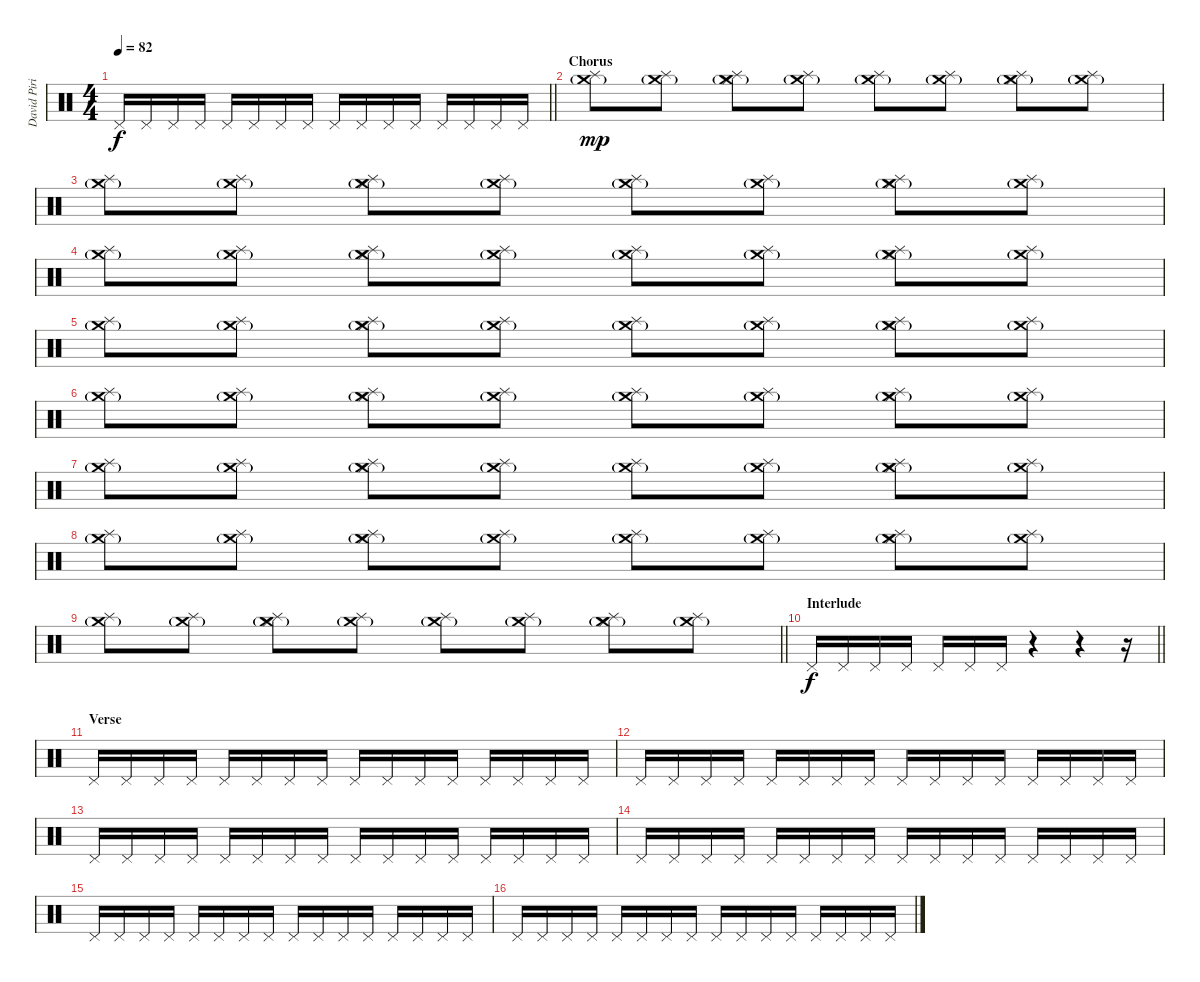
\track ("David Piribauer (Drums)" "David Piri") {instrument percussion}
\staff {score}
\articulation defaults
\ts (4 4)
\tempo 82
\clef neutral
\barLineRight lightlight
\ks c "Pedal Hi-Hat (hit)".16{dy f} "Pedal Hi-Hat (hit)".16 "Pedal Hi-Hat (hit)".16 "Pedal Hi-Hat (hit)".16 "Pedal Hi-Hat (hit)".16 "Pedal Hi-Hat (hit)".16 "Pedal Hi-Hat (hit)".16 "Pedal Hi-Hat (hit)".16 "Pedal Hi-Hat (hit)".16 "Pedal Hi-Hat (hit)".16 "Pedal Hi-Hat (hit)".16 "Pedal Hi-Hat (hit)".16 "Pedal Hi-Hat (hit)".16 "Pedal Hi-Hat (hit)".16 "Pedal Hi-Hat (hit)".16 "Pedal Hi-Hat (hit)".16
|
\section ("" "Chorus")
("Crash medium (hit)"{g} "Splash (hit)").8{dy mp} ("Crash medium (hit)"{g} "Splash (hit)").8 ("Crash medium (hit)"{g} "Splash (hit)" "Hi-Hat (closed)").8 ("Crash medium (hit)"{g} "Splash (hit)").8 ("Crash medium (hit)"{g} "Splash (hit)").8 ("Crash medium (hit)"{g} "Splash (hit)").8 ("Crash medium (hit)"{g} "Splash (hit)" "Hi-Hat (closed)").8 ("Crash medium (hit)"{g} "Splash (hit)").8 |
("Crash medium (hit)"{g} "Splash (hit)").8 ("Crash medium (hit)"{g} "Splash (hit)").8 ("Crash medium (hit)"{g} "Splash (hit)" "Hi-Hat (closed)").8 ("Crash medium (hit)"{g} "Splash (hit)").8 ("Crash medium (hit)"{g} "Splash (hit)").8 ("Crash medium (hit)"{g} "Splash (hit)").8 ("Crash medium (hit)"{g} "Splash (hit)" "Hi-Hat (closed)").8 ("Crash medium (hit)"{g} "Splash (hit)").8 |
("Crash medium (hit)"{g} "Splash (hit)").8 ("Crash medium (hit)"{g} "Splash (hit)").8 ("Crash medium (hit)"{g} "Splash (hit)" "Hi-Hat (closed)").8 ("Crash medium (hit)"{g} "Splash (hit)").8 ("Crash medium (hit)"{g} "Splash (hit)").8 ("Crash medium (hit)"{g} "Splash (hit)").8 ("Crash medium (hit)"{g} "Splash (hit)" "Hi-Hat (closed)").8 ("Crash medium (hit)"{g} "Splash (hit)").8 |
("Crash medium (hit)"{g} "Splash (hit)").8 ("Crash medium (hit)"{g} "Splash (hit)").8 ("Crash medium (hit)"{g} "Splash (hit)" "Hi-Hat (closed)").8 ("Crash medium (hit)"{g} "Splash (hit)").8 ("Crash medium (hit)"{g} "Splash (hit)").8 ("Crash medium (hit)"{g} "Splash (hit)").8 ("Crash medium (hit)"{g} "Splash (hit)" "Hi-Hat (closed)").8 ("Crash medium (hit)"{g} "Splash (hit)").8 |
("Crash medium (hit)"{g} "Splash (hit)").8 ("Crash medium (hit)"{g} "Splash (hit)").8 ("Crash medium (hit)"{g} "Splash (hit)" "Hi-Hat (closed)").8 ("Crash medium (hit)"{g} "Splash (hit)").8 ("Crash medium (hit)"{g} "Splash (hit)").8 ("Crash medium (hit)"{g} "Splash (hit)").8 ("Crash medium (hit)"{g} "Splash (hit)" "Hi-Hat (closed)").8 ("Crash medium (hit)"{g} "Splash (hit)").8 |
("Crash medium (hit)"{g} "Splash (hit)").8 ("Crash medium (hit)"{g} "Splash (hit)").8 ("Crash medium (hit)"{g} "Splash (hit)" "Hi-Hat (closed)").8 ("Crash medium (hit)"{g} "Splash (hit)").8 ("Crash medium (hit)"{g} "Splash (hit)").8 ("Crash medium (hit)"{g} "Splash (hit)").8 ("Crash medium (hit)"{g} "Splash (hit)" "Hi-Hat (closed)").8 ("Crash medium (hit)"{g} "Splash (hit)").8 |
("Crash medium (hit)"{g} "Splash (hit)").8 ("Crash medium (hit)"{g} "Splash (hit)").8 ("Crash medium (hit)"{g} "Splash (hit)" "Hi-Hat (closed)").8 ("Crash medium (hit)"{g} "Splash (hit)").8 ("Crash medium (hit)"{g} "Splash (hit)").8 ("Crash medium (hit)"{g} "Splash (hit)").8 ("Crash medium (hit)"{g} "Splash (hit)" "Hi-Hat (closed)").8 ("Crash medium (hit)"{g} "Splash (hit)").8 |
\barLineRight lightlight
("Crash medium (hit)"{g} "Splash (hit)").8 ("Crash medium (hit)"{g} "Splash (hit)").8 ("Crash medium (hit)"{g} "Splash (hit)" "Hi-Hat (closed)").8 ("Crash medium (hit)"{g} "Splash (hit)").8 ("Crash medium (hit)"{g} "Splash (hit)").8 ("Crash medium (hit)"{g} "Splash (hit)").8 ("Crash medium (hit)"{g} "Splash (hit)" "Hi-Hat (closed)").8 ("Crash medium (hit)"{g} "Splash (hit)").8 |
\section ("" "Interlude")
\barLineRight lightlight "Pedal Hi-Hat (hit)".16{dy f} "Pedal Hi-Hat (hit)".16 "Pedal Hi-Hat (hit)".16 "Pedal Hi-Hat (hit)".16 "Pedal Hi-Hat (hit)".16 "Pedal Hi-Hat (hit)".16 "Pedal Hi-Hat (hit)".16
r.4 r.4 r.16 |
\section ("" "Verse")
"Pedal Hi-Hat (hit)".16 "Pedal Hi-Hat (hit)".16 "Pedal Hi-Hat (hit)".16 "Pedal Hi-Hat (hit)".16 "Pedal Hi-Hat (hit)".16 "Pedal Hi-Hat (hit)".16 "Pedal Hi-Hat (hit)".16 "Pedal Hi-Hat (hit)".16 "Pedal Hi-Hat (hit)".16 "Pedal Hi-Hat (hit)".16 "Pedal Hi-Hat (hit)".16 "Pedal Hi-Hat (hit)".16 "Pedal Hi-Hat (hit)".16 "Pedal Hi-Hat (hit)".16 "Pedal Hi-Hat (hit)".16 "Pedal Hi-Hat (hit)".16 |
"Pedal Hi-Hat (hit)".16 "Pedal Hi-Hat (hit)".16 "Pedal Hi-Hat (hit)".16 "Pedal Hi-Hat (hit)".16 "Pedal Hi-Hat (hit)".16 "Pedal Hi-Hat (hit)".16 "Pedal Hi-Hat (hit)".16 "Pedal Hi-Hat (hit)".16 "Pedal Hi-Hat (hit)".16 "Pedal Hi-Hat (hit)".16 "Pedal Hi-Hat (hit)".16 "Pedal Hi-Hat (hit)".16 "Pedal Hi-Hat (hit)".16 "Pedal Hi-Hat (hit)".16 "Pedal Hi-Hat (hit)".16 "Pedal Hi-Hat (hit)".16 |
"Pedal Hi-Hat (hit)".16 "Pedal Hi-Hat (hit)".16 "Pedal Hi-Hat (hit)".16 "Pedal Hi-Hat (hit)".16 "Pedal Hi-Hat (hit)".16 "Pedal Hi-Hat (hit)".16 "Pedal Hi-Hat (hit)".16 "Pedal Hi-Hat (hit)".16 "Pedal Hi-Hat (hit)".16 "Pedal Hi-Hat (hit)".16 "Pedal Hi-Hat (hit)".16 "Pedal Hi-Hat (hit)".16 "Pedal Hi-Hat (hit)".16 "Pedal Hi-Hat (hit)".16 "Pedal Hi-Hat (hit)".16 "Pedal Hi-Hat (hit)".16 |
"Pedal Hi-Hat (hit)".16 "Pedal Hi-Hat (hit)".16 "Pedal Hi-Hat (hit)".16 "Pedal Hi-Hat (hit)".16 "Pedal Hi-Hat (hit)".16 "Pedal Hi-Hat (hit)".16 "Pedal Hi-Hat (hit)".16 "Pedal Hi-Hat (hit)".16 "Pedal Hi-Hat (hit)".16 "Pedal Hi-Hat (hit)".16 "Pedal Hi-Hat (hit)".16 "Pedal Hi-Hat (hit)".16 "Pedal Hi-Hat (hit)".16 "Pedal Hi-Hat (hit)".16 "Pedal Hi-Hat (hit)".16 "Pedal Hi-Hat (hit)".16 |
"Pedal Hi-Hat (hit)".16 "Pedal Hi-Hat (hit)".16 "Pedal Hi-Hat (hit)".16 "Pedal Hi-Hat (hit)".16 "Pedal Hi-Hat (hit)".16 "Pedal Hi-Hat (hit)".16 "Pedal Hi-Hat (hit)".16 "Pedal Hi-Hat (hit)".16 "Pedal Hi-Hat (hit)".16 "Pedal Hi-Hat (hit)".16 "Pedal Hi-Hat (hit)".16 "Pedal Hi-Hat (hit)".16 "Pedal Hi-Hat (hit)".16 "Pedal Hi-Hat (hit)".16 "Pedal Hi-Hat (hit)".16 "Pedal Hi-Hat (hit)".16 |
"Pedal Hi-Hat (hit)".16 "Pedal Hi-Hat (hit)".16 "Pedal Hi-Hat (hit)".16 "Pedal Hi-Hat (hit)".16 "Pedal Hi-Hat (hit)".16 "Pedal Hi-Hat (hit)".16 "Pedal Hi-Hat (hit)".16 "Pedal Hi-Hat (hit)".16 "Pedal Hi-Hat (hit)".16 "Pedal Hi-Hat (hit)".16 "Pedal Hi-Hat (hit)".16 "Pedal Hi-Hat (hit)".16 "Pedal Hi-Hat (hit)".16 "Pedal Hi-Hat (hit)".16 "Pedal Hi-Hat (hit)".16 "Pedal Hi-Hat (hit)".16
